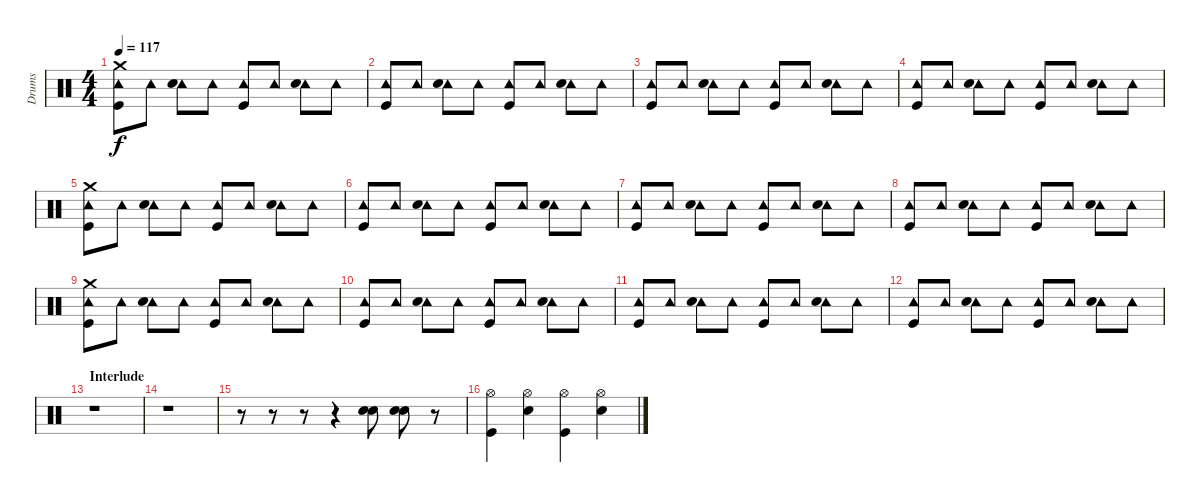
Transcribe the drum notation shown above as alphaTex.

\track ("Drums" "Drums") {instrument percussion}
\staff {score}
\articulation defaults
\ts (4 4)
\tempo 117
\clef neutral
\ks c
("Crash medium (hit)" "Tambourine (hit)" "Kick (hit)").8{dy f} "Tambourine (hit)".8 ("Tambourine (hit)" "Electric Snare (hit)").8 "Tambourine (hit)".8 ("Tambourine (hit)" "Kick (hit)").8 "Tambourine (hit)".8 ("Tambourine (hit)" "Electric Snare (hit)").8 "Tambourine (hit)".8 |
("Tambourine (hit)" "Kick (hit)").8 "Tambourine (hit)".8 ("Tambourine (hit)" "Electric Snare (hit)").8 "Tambourine (hit)".8 ("Tambourine (hit)" "Kick (hit)").8 "Tambourine (hit)".8 ("Tambourine (hit)" "Electric Snare (hit)").8 "Tambourine (hit)".8 |
("Tambourine (hit)" "Kick (hit)").8 "Tambourine (hit)".8 ("Tambourine (hit)" "Electric Snare (hit)").8 "Tambourine (hit)".8 ("Tambourine (hit)" "Kick (hit)").8 "Tambourine (hit)".8 ("Tambourine (hit)" "Electric Snare (hit)").8 "Tambourine (hit)".8 |
("Tambourine (hit)" "Kick (hit)").8 "Tambourine (hit)".8 ("Tambourine (hit)" "Electric Snare (hit)").8 "Tambourine (hit)".8 ("Tambourine (hit)" "Kick (hit)").8 "Tambourine (hit)".8 ("Tambourine (hit)" "Electric Snare (hit)").8 "Tambourine (hit)".8 |
("Crash medium (hit)" "Tambourine (hit)" "Kick (hit)").8 "Tambourine (hit)".8 ("Tambourine (hit)" "Electric Snare (hit)").8 "Tambourine (hit)".8 ("Tambourine (hit)" "Kick (hit)").8 "Tambourine (hit)".8 ("Tambourine (hit)" "Electric Snare (hit)").8 "Tambourine (hit)".8 |
("Tambourine (hit)" "Kick (hit)").8 "Tambourine (hit)".8 ("Tambourine (hit)" "Electric Snare (hit)").8 "Tambourine (hit)".8 ("Tambourine (hit)" "Kick (hit)").8 "Tambourine (hit)".8 ("Tambourine (hit)" "Electric Snare (hit)").8 "Tambourine (hit)".8 |
("Tambourine (hit)" "Kick (hit)").8 "Tambourine (hit)".8 ("Tambourine (hit)" "Electric Snare (hit)").8 "Tambourine (hit)".8 ("Tambourine (hit)" "Kick (hit)").8 "Tambourine (hit)".8 ("Tambourine (hit)" "Electric Snare (hit)").8 "Tambourine (hit)".8 |
("Tambourine (hit)" "Kick (hit)").8 "Tambourine (hit)".8 ("Tambourine (hit)" "Electric Snare (hit)").8 "Tambourine (hit)".8 ("Tambourine (hit)" "Kick (hit)").8 "Tambourine (hit)".8 ("Tambourine (hit)" "Electric Snare (hit)").8 "Tambourine (hit)".8 |
("Crash medium (hit)" "Tambourine (hit)" "Kick (hit)").8 "Tambourine (hit)".8 ("Tambourine (hit)" "Electric Snare (hit)").8 "Tambourine (hit)".8 ("Tambourine (hit)" "Kick (hit)").8 "Tambourine (hit)".8 ("Tambourine (hit)" "Electric Snare (hit)").8 "Tambourine (hit)".8 |
("Tambourine (hit)" "Kick (hit)").8 "Tambourine (hit)".8 ("Tambourine (hit)" "Electric Snare (hit)").8 "Tambourine (hit)".8 ("Tambourine (hit)" "Kick (hit)").8 "Tambourine (hit)".8 ("Tambourine (hit)" "Electric Snare (hit)").8 "Tambourine (hit)".8 |
("Tambourine (hit)" "Kick (hit)").8 "Tambourine (hit)".8 ("Tambourine (hit)" "Electric Snare (hit)").8 "Tambourine (hit)".8 ("Tambourine (hit)" "Kick (hit)").8 "Tambourine (hit)".8 ("Tambourine (hit)" "Electric Snare (hit)").8 "Tambourine (hit)".8 |
("Tambourine (hit)" "Kick (hit)").8 "Tambourine (hit)".8 ("Tambourine (hit)" "Electric Snare (hit)").8 "Tambourine (hit)".8 ("Tambourine (hit)" "Kick (hit)").8 "Tambourine (hit)".8 ("Tambourine (hit)" "Electric Snare (hit)").8 "Tambourine (hit)".8 |
\section ("" "Interlude")
r.1 |
r.1 |
r.8 r.8 r.8 r.4 ("Electric Snare (hit)" "Electric Snare (hit)").8 ("Electric Snare (hit)" "Electric Snare (hit)").8 r.8 |
("Hi-Hat (open)" "Kick (hit)").4 ("Hi-Hat (open)" "Electric Snare (hit)").4 ("Hi-Hat (open)" "Kick (hit)").4 ("Hi-Hat (open)" "Electric Snare (hit)").4
